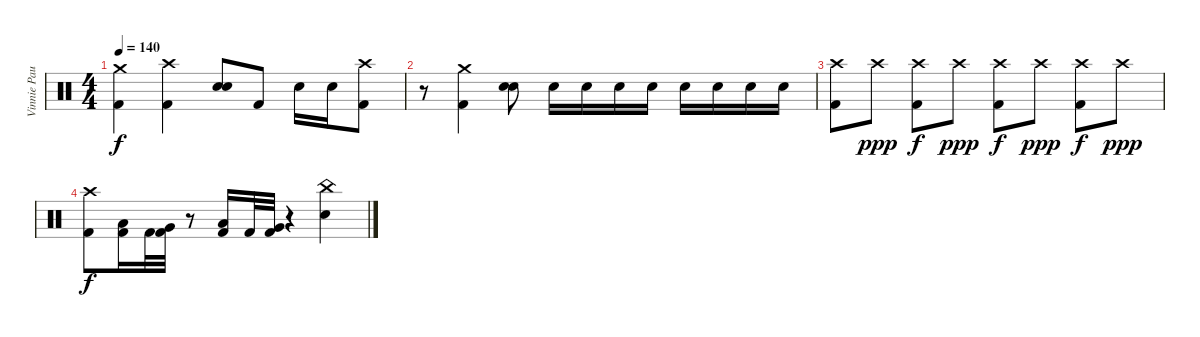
\track ("Vinnie Paul" "Vinnie Pau") {instrument percussion}
\staff {score}
\articulation defaults
\ts (4 4)
\tempo 140
\clef neutral
\ks c
("Crash medium (hit)" "Kick (hit) 2").4{dy f} ("Crash high (hit)" "Kick (hit) 2").4 ("Snare (hit) 2" "Snare (hit) 2").8{bd 120} "Kick (hit) 2".8 "Snare (hit) 2".16 "Snare (hit) 2".16 ("Crash high (hit)" "Kick (hit) 2").8 |
r.8 ("Crash medium (hit)" "Kick (hit) 2").4 ("Snare (hit) 2" "Snare (hit) 2").8{bd 120} "Snare (hit) 2".16 "Snare (hit) 2".16 "Snare (hit) 2".16 "Snare (hit) 2".16 "Snare (hit) 2".16 "Snare (hit) 2".16 "Snare (hit) 2".16 "Snare (hit) 2".16 |
("Crash high (hit)" "Kick (hit) 2").8 "Crash high (hit)".8{dy ppp} ("Crash high (hit)" "Kick (hit) 2").8{dy f} "Crash high (hit)".8{dy ppp} ("Crash high (hit)" "Kick (hit) 2").8{dy f} "Crash high (hit)".8{dy ppp} ("Crash high (hit)" "Kick (hit) 2").8{dy f} "Crash high (hit)".8{dy ppp} |
("Crash high (hit)" "Kick (hit) 2").8{dy f} ("Low Tom (hit)" "Kick (hit) 2").16 "Kick (hit) 2".32 ("Very Low Tom (hit)" "Kick (hit) 2").32 r.8 ("Low Tom (hit)" "Kick (hit) 2").16 "Kick (hit) 2".32 ("Very Low Tom (hit)" "Kick (hit) 2").32 r.4 ("China (hit)" "Snare (hit) 2").4
